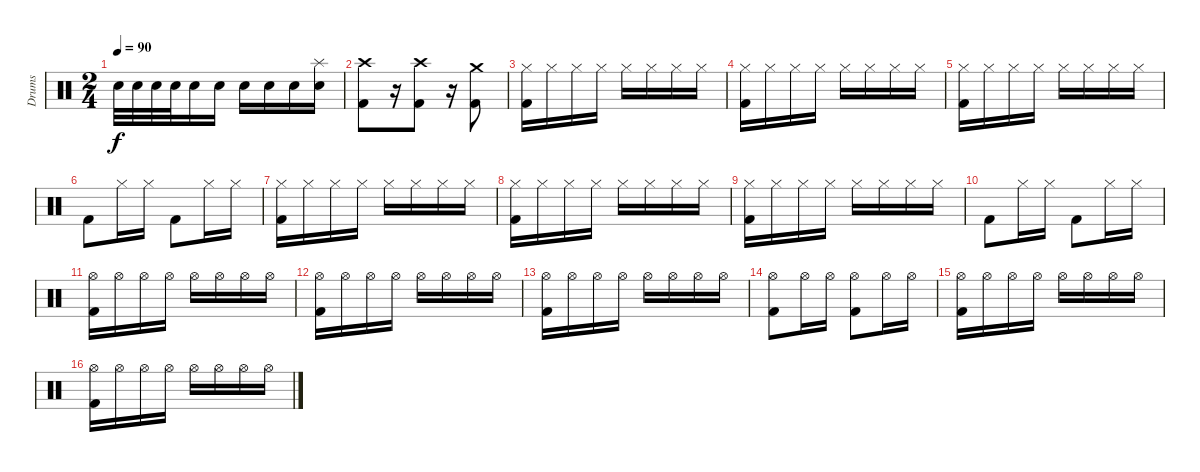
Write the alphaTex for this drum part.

\track ("Drums" "Drums") {instrument percussion}
\staff {score}
\articulation defaults
\ts (2 4)
\tempo 90
\clef neutral
\ks c "Snare (hit) 2".32{dy f volume 9} "Snare (hit) 2".32{volume 16} "Snare (hit) 2".32 "Snare (hit) 2".32 "Snare (hit) 2".16 "Snare (hit) 2".16 "Snare (hit) 2".16 "Snare (hit) 2".16 "Snare (hit) 2".16
("Splash (hit)" "Snare (hit) 2").16 |
("Crash high (hit)" "Kick (hit) 2").8 r.16 ("Crash high (hit)" "Kick (hit) 2").8 r.16 ("Crash medium (hit)" "Kick (hit) 2").8 |
("Kick (hit) 2" "Hi-Hat (closed)").16 "Hi-Hat (closed)".16 "Hi-Hat (closed)".16 "Hi-Hat (closed)".16 "Hi-Hat (closed)".16 "Hi-Hat (closed)".16 "Hi-Hat (closed)".16 "Hi-Hat (closed)".16 |
("Kick (hit) 2" "Hi-Hat (closed)").16 "Hi-Hat (closed)".16 "Hi-Hat (closed)".16 "Hi-Hat (closed)".16 "Hi-Hat (closed)".16 "Hi-Hat (closed)".16 "Hi-Hat (closed)".16 "Hi-Hat (closed)".16 |
("Hi-Hat (closed)" "Kick (hit) 2").16 "Hi-Hat (closed)".16 "Hi-Hat (closed)".16 "Hi-Hat (closed)".16 "Hi-Hat (closed)".16 "Hi-Hat (closed)".16 "Hi-Hat (closed)".16 "Hi-Hat (closed)".16 |
"Kick (hit) 2".8 "Hi-Hat (closed)".16 "Hi-Hat (closed)".16 "Kick (hit) 2".8 "Hi-Hat (closed)".16 "Hi-Hat (closed)".16 |
("Kick (hit) 2" "Hi-Hat (closed)").16 "Hi-Hat (closed)".16 "Hi-Hat (closed)".16 "Hi-Hat (closed)".16 "Hi-Hat (closed)".16 "Hi-Hat (closed)".16 "Hi-Hat (closed)".16 "Hi-Hat (closed)".16 |
("Kick (hit) 2" "Hi-Hat (closed)").16 "Hi-Hat (closed)".16 "Hi-Hat (closed)".16 "Hi-Hat (closed)".16 "Hi-Hat (closed)".16 "Hi-Hat (closed)".16 "Hi-Hat (closed)".16 "Hi-Hat (closed)".16 |
("Hi-Hat (closed)" "Kick (hit) 2").16 "Hi-Hat (closed)".16 "Hi-Hat (closed)".16 "Hi-Hat (closed)".16 "Hi-Hat (closed)".16 "Hi-Hat (closed)".16 "Hi-Hat (closed)".16 "Hi-Hat (closed)".16 |
"Kick (hit) 2".8 "Hi-Hat (closed)".16 "Hi-Hat (closed)".16 "Kick (hit) 2".8 "Hi-Hat (closed)".16 "Hi-Hat (closed)".16 |
("Kick (hit) 2" "Hi-Hat (open)").16 "Hi-Hat (open)".16 "Hi-Hat (open)".16 "Hi-Hat (open)".16 "Hi-Hat (open)".16 "Hi-Hat (open)".16 "Hi-Hat (open)".16 "Hi-Hat (open)".16 |
("Kick (hit) 2" "Hi-Hat (open)").16 "Hi-Hat (open)".16 "Hi-Hat (open)".16 "Hi-Hat (open)".16 "Hi-Hat (open)".16 "Hi-Hat (open)".16 "Hi-Hat (open)".16 "Hi-Hat (open)".16 |
("Kick (hit) 2" "Hi-Hat (open)").16 "Hi-Hat (open)".16 "Hi-Hat (open)".16 "Hi-Hat (open)".16 "Hi-Hat (open)".16 "Hi-Hat (open)".16 "Hi-Hat (open)".16 "Hi-Hat (open)".16 |
("Kick (hit) 2" "Hi-Hat (open)").8 "Hi-Hat (open)".16 "Hi-Hat (open)".16 ("Kick (hit) 2" "Hi-Hat (open)").8 "Hi-Hat (open)".16 "Hi-Hat (open)".16 |
("Kick (hit) 2" "Hi-Hat (open)").16 "Hi-Hat (open)".16 "Hi-Hat (open)".16 "Hi-Hat (open)".16 "Hi-Hat (open)".16 "Hi-Hat (open)".16 "Hi-Hat (open)".16 "Hi-Hat (open)".16 |
("Kick (hit) 2" "Hi-Hat (open)").16 "Hi-Hat (open)".16 "Hi-Hat (open)".16 "Hi-Hat (open)".16 "Hi-Hat (open)".16 "Hi-Hat (open)".16 "Hi-Hat (open)".16 "Hi-Hat (open)".16
